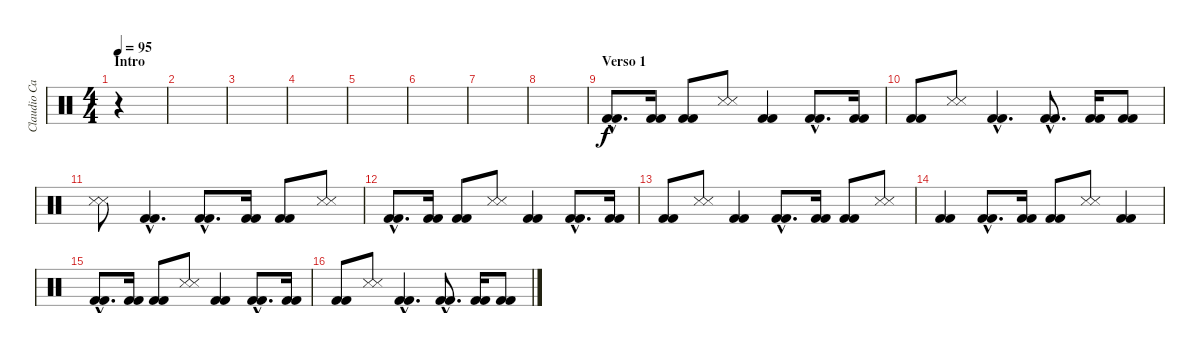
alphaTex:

\track ("Claudio Cardaci (Percusión)" "Claudio Ca") {instrument percussion}
\staff {score}
\articulation defaults
\ts (4 4)
\section ("" "Intro")
\tempo 95
\clef neutral
\ks c
r.4{dy f} |
|
|
|
|
|
|
|
\section ("" "Verso 1")
("Kick (hit) 2"{hac} "Kick (hit) 2"{hac}).8{d} ("Kick (hit) 2" "Kick (hit) 2").16 ("Kick (hit) 2" "Kick (hit) 2").8 ("Snare (side stick) 3" "Snare (side stick) 3").8 ("Kick (hit) 2" "Kick (hit) 2").4 ("Kick (hit) 2"{hac} "Kick (hit) 2"{hac}).8{d} ("Kick (hit) 2" "Kick (hit) 2").16 |
("Kick (hit) 2" "Kick (hit) 2").8 ("Snare (side stick) 3" "Snare (side stick) 3").8 ("Kick (hit) 2"{hac} "Kick (hit) 2"{hac}).4{d} ("Kick (hit) 2"{hac} "Kick (hit) 2"{hac}).8{d} ("Kick (hit) 2" "Kick (hit) 2").16 ("Kick (hit) 2" "Kick (hit) 2").8 |
("Snare (side stick) 3" "Snare (side stick) 3").8 ("Kick (hit) 2"{hac} "Kick (hit) 2"{hac}).4{d} ("Kick (hit) 2"{hac} "Kick (hit) 2"{hac}).8{d} ("Kick (hit) 2" "Kick (hit) 2").16 ("Kick (hit) 2" "Kick (hit) 2").8 ("Snare (side stick) 3" "Snare (side stick) 3").8 |
("Kick (hit) 2"{hac} "Kick (hit) 2"{hac}).8{d} ("Kick (hit) 2" "Kick (hit) 2").16 ("Kick (hit) 2" "Kick (hit) 2").8 ("Snare (side stick) 3" "Snare (side stick) 3").8 ("Kick (hit) 2" "Kick (hit) 2").4 ("Kick (hit) 2"{hac} "Kick (hit) 2"{hac}).8{d} ("Kick (hit) 2" "Kick (hit) 2").16 |
("Kick (hit) 2" "Kick (hit) 2").8 ("Snare (side stick) 3" "Snare (side stick) 3").8 ("Kick (hit) 2" "Kick (hit) 2").4 ("Kick (hit) 2"{hac} "Kick (hit) 2"{hac}).8{d} ("Kick (hit) 2" "Kick (hit) 2").16 ("Kick (hit) 2" "Kick (hit) 2").8 ("Snare (side stick) 3" "Snare (side stick) 3").8 |
("Kick (hit) 2" "Kick (hit) 2").4 ("Kick (hit) 2"{hac} "Kick (hit) 2"{hac}).8{d} ("Kick (hit) 2" "Kick (hit) 2").16 ("Kick (hit) 2" "Kick (hit) 2").8 ("Snare (side stick) 3" "Snare (side stick) 3").8 ("Kick (hit) 2" "Kick (hit) 2").4 |
("Kick (hit) 2"{hac} "Kick (hit) 2"{hac}).8{d} ("Kick (hit) 2" "Kick (hit) 2").16 ("Kick (hit) 2" "Kick (hit) 2").8 ("Snare (side stick) 3" "Snare (side stick) 3").8 ("Kick (hit) 2" "Kick (hit) 2").4 ("Kick (hit) 2"{hac} "Kick (hit) 2"{hac}).8{d} ("Kick (hit) 2" "Kick (hit) 2").16 |
("Kick (hit) 2" "Kick (hit) 2").8 ("Snare (side stick) 3" "Snare (side stick) 3").8 ("Kick (hit) 2"{hac} "Kick (hit) 2"{hac}).4{d} ("Kick (hit) 2"{hac} "Kick (hit) 2"{hac}).8{d} ("Kick (hit) 2" "Kick (hit) 2").16 ("Kick (hit) 2" "Kick (hit) 2").8
